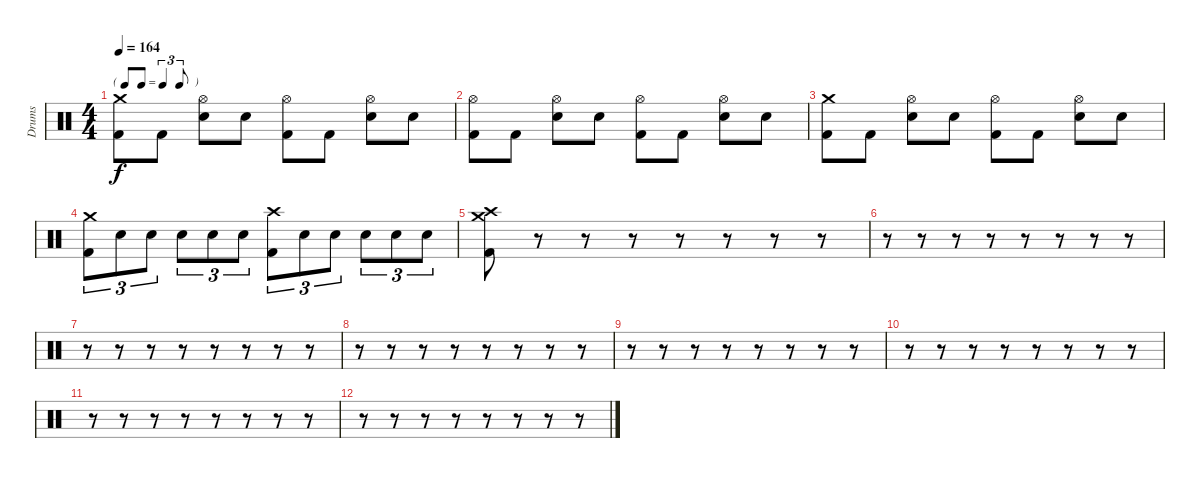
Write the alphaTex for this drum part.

\track ("Drums" "Drums") {instrument percussion}
\staff {score}
\articulation defaults
\ts (4 4)
\tf triplet8th
\tempo 164
\clef neutral
\ks c
("Crash medium (hit)" "Kick (hit) 2").8{dy f} "Kick (hit) 2".8 ("Hi-Hat (open)" "Electric Snare (hit)").8 "Electric Snare (hit)".8 ("Hi-Hat (open)" "Kick (hit) 2").8 "Kick (hit) 2".8 ("Hi-Hat (open)" "Electric Snare (hit)").8 "Electric Snare (hit)".8 |
("Hi-Hat (open)" "Kick (hit) 2").8 "Kick (hit) 2".8 ("Hi-Hat (open)" "Electric Snare (hit)").8 "Electric Snare (hit)".8 ("Hi-Hat (open)" "Kick (hit) 2").8 "Kick (hit) 2".8 ("Hi-Hat (open)" "Electric Snare (hit)").8 "Electric Snare (hit)".8 |
("Crash medium (hit)" "Kick (hit) 2").8 "Kick (hit) 2".8 ("Hi-Hat (open)" "Electric Snare (hit)").8 "Electric Snare (hit)".8 ("Hi-Hat (open)" "Kick (hit) 2").8 "Kick (hit) 2".8 ("Hi-Hat (open)" "Electric Snare (hit)").8 "Electric Snare (hit)".8 |
("Crash medium (hit)" "Kick (hit) 2").8{tu (3 2)} "Electric Snare (hit)".8{tu (3 2)} "Electric Snare (hit)".8{tu (3 2)} "Electric Snare (hit)".8{tu (3 2)} "Electric Snare (hit)".8{tu (3 2)} "Electric Snare (hit)".8{tu (3 2)} ("Crash high (hit)" "Kick (hit) 2").8{tu (3 2)} "Electric Snare (hit)".8{tu (3 2)} "Electric Snare (hit)".8{tu (3 2)} "Electric Snare (hit)".8{tu (3 2)} "Electric Snare (hit)".8{tu (3 2)} "Electric Snare (hit)".8{tu (3 2)} |
("Crash medium (hit)" "Crash high (hit)" "Kick (hit) 2").8 r.8 r.8 r.8 r.8 r.8 r.8 r.8 |
r.8 r.8 r.8 r.8 r.8 r.8 r.8 r.8 |
r.8 r.8 r.8 r.8 r.8 r.8 r.8 r.8 |
r.8 r.8 r.8 r.8 r.8 r.8 r.8 r.8 |
r.8 r.8 r.8 r.8 r.8 r.8 r.8 r.8 |
r.8 r.8 r.8 r.8 r.8 r.8 r.8 r.8 |
r.8 r.8 r.8 r.8 r.8 r.8 r.8 r.8 |
r.8 r.8 r.8 r.8 r.8 r.8 r.8 r.8
